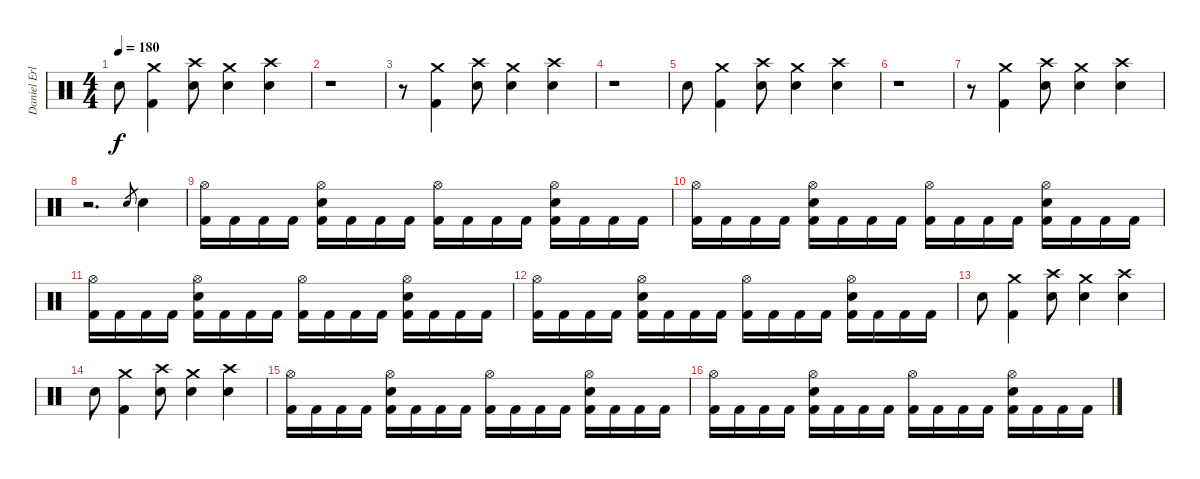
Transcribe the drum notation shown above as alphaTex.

\track ("Daniel Erlandson" "Daniel Erl") {instrument percussion}
\staff {score}
\articulation defaults
\ts (4 4)
\tempo 180
\clef neutral
\ks c "Electric Snare (hit)".8{dy f}
("Crash medium (hit)" "Kick (hit) 2").4 ("Crash high (hit)" "Electric Snare (hit)").8 ("Crash medium (hit)" "Electric Snare (hit)").4 ("Crash high (hit)" "Electric Snare (hit)").4 |
r.1 |
r.8 ("Crash medium (hit)" "Kick (hit) 2").4 ("Crash high (hit)" "Electric Snare (hit)").8 ("Crash medium (hit)" "Electric Snare (hit)").4 ("Crash high (hit)" "Electric Snare (hit)").4 |
r.1 |
"Electric Snare (hit)".8 ("Crash medium (hit)" "Kick (hit) 2").4 ("Crash high (hit)" "Electric Snare (hit)").8 ("Crash medium (hit)" "Electric Snare (hit)").4 ("Crash high (hit)" "Electric Snare (hit)").4 |
r.1 |
r.8 ("Crash medium (hit)" "Kick (hit) 2").4 ("Crash high (hit)" "Electric Snare (hit)").8 ("Crash medium (hit)" "Electric Snare (hit)").4 ("Crash high (hit)" "Electric Snare (hit)").4 |
r.2{d} "Electric Snare (hit)".8{gr} "Electric Snare (hit)".4 |
("Hi-Hat (open)" "Kick (hit) 2").16 "Kick (hit) 2".16 "Kick (hit) 2".16 "Kick (hit) 2".16 ("Hi-Hat (open)" "Electric Snare (hit)" "Kick (hit) 2").16 "Kick (hit) 2".16 "Kick (hit) 2".16 "Kick (hit) 2".16 ("Hi-Hat (open)" "Kick (hit) 2").16 "Kick (hit) 2".16 "Kick (hit) 2".16 "Kick (hit) 2".16 ("Hi-Hat (open)" "Electric Snare (hit)" "Kick (hit) 2").16 "Kick (hit) 2".16 "Kick (hit) 2".16 "Kick (hit) 2".16 |
("Hi-Hat (open)" "Kick (hit) 2").16 "Kick (hit) 2".16 "Kick (hit) 2".16 "Kick (hit) 2".16 ("Hi-Hat (open)" "Electric Snare (hit)" "Kick (hit) 2").16 "Kick (hit) 2".16 "Kick (hit) 2".16 "Kick (hit) 2".16 ("Hi-Hat (open)" "Kick (hit) 2").16 "Kick (hit) 2".16 "Kick (hit) 2".16 "Kick (hit) 2".16 ("Hi-Hat (open)" "Electric Snare (hit)" "Kick (hit) 2").16 "Kick (hit) 2".16 "Kick (hit) 2".16 "Kick (hit) 2".16 |
("Hi-Hat (open)" "Kick (hit) 2").16 "Kick (hit) 2".16 "Kick (hit) 2".16 "Kick (hit) 2".16 ("Hi-Hat (open)" "Electric Snare (hit)" "Kick (hit) 2").16 "Kick (hit) 2".16 "Kick (hit) 2".16 "Kick (hit) 2".16 ("Hi-Hat (open)" "Kick (hit) 2").16 "Kick (hit) 2".16 "Kick (hit) 2".16 "Kick (hit) 2".16 ("Hi-Hat (open)" "Electric Snare (hit)" "Kick (hit) 2").16 "Kick (hit) 2".16 "Kick (hit) 2".16 "Kick (hit) 2".16 |
("Hi-Hat (open)" "Kick (hit) 2").16 "Kick (hit) 2".16 "Kick (hit) 2".16 "Kick (hit) 2".16 ("Hi-Hat (open)" "Electric Snare (hit)" "Kick (hit) 2").16 "Kick (hit) 2".16 "Kick (hit) 2".16 "Kick (hit) 2".16 ("Hi-Hat (open)" "Kick (hit) 2").16 "Kick (hit) 2".16 "Kick (hit) 2".16 "Kick (hit) 2".16 ("Hi-Hat (open)" "Electric Snare (hit)" "Kick (hit) 2").16 "Kick (hit) 2".16 "Kick (hit) 2".16 "Kick (hit) 2".16 |
"Electric Snare (hit)".8 ("Crash medium (hit)" "Kick (hit) 2").4 ("Crash high (hit)" "Electric Snare (hit)").8 ("Crash medium (hit)" "Electric Snare (hit)").4 ("Crash high (hit)" "Electric Snare (hit)").4 |
"Electric Snare (hit)".8 ("Crash medium (hit)" "Kick (hit) 2").4 ("Crash high (hit)" "Electric Snare (hit)").8 ("Crash medium (hit)" "Electric Snare (hit)").4 ("Crash high (hit)" "Electric Snare (hit)").4 |
("Hi-Hat (open)" "Kick (hit) 2").16 "Kick (hit) 2".16 "Kick (hit) 2".16 "Kick (hit) 2".16 ("Hi-Hat (open)" "Electric Snare (hit)" "Kick (hit) 2").16 "Kick (hit) 2".16 "Kick (hit) 2".16 "Kick (hit) 2".16 ("Hi-Hat (open)" "Kick (hit) 2").16 "Kick (hit) 2".16 "Kick (hit) 2".16 "Kick (hit) 2".16 ("Hi-Hat (open)" "Electric Snare (hit)" "Kick (hit) 2").16 "Kick (hit) 2".16 "Kick (hit) 2".16 "Kick (hit) 2".16 |
("Hi-Hat (open)" "Kick (hit) 2").16 "Kick (hit) 2".16 "Kick (hit) 2".16 "Kick (hit) 2".16 ("Hi-Hat (open)" "Electric Snare (hit)" "Kick (hit) 2").16 "Kick (hit) 2".16 "Kick (hit) 2".16 "Kick (hit) 2".16 ("Hi-Hat (open)" "Kick (hit) 2").16 "Kick (hit) 2".16 "Kick (hit) 2".16 "Kick (hit) 2".16 ("Hi-Hat (open)" "Electric Snare (hit)" "Kick (hit) 2").16 "Kick (hit) 2".16 "Kick (hit) 2".16 "Kick (hit) 2".16
